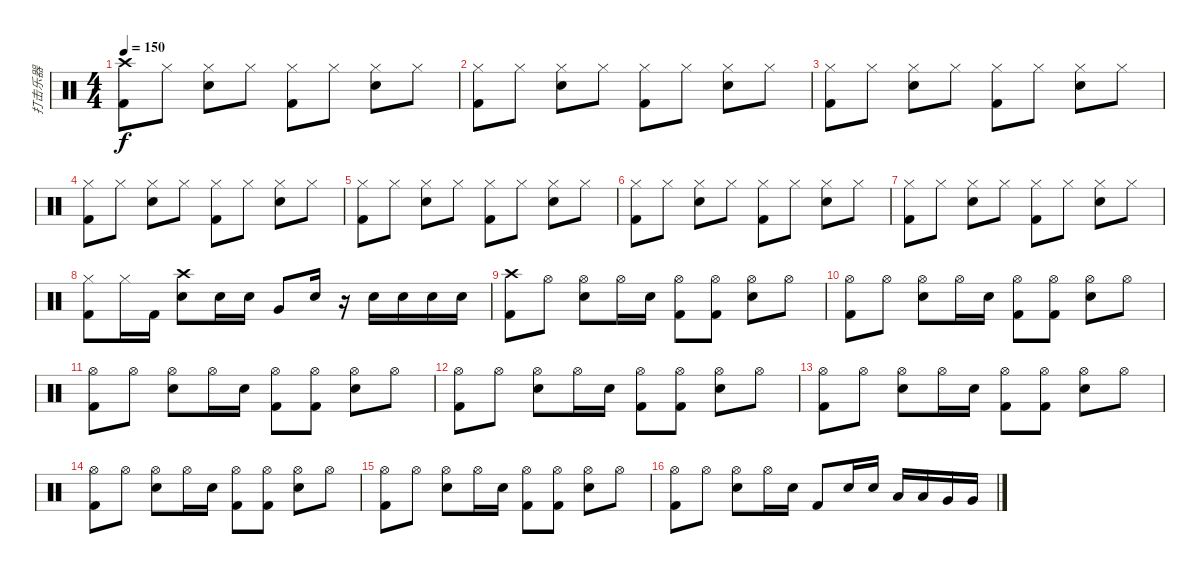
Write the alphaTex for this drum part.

\track ("打击乐器" "打击乐器") {instrument percussion}
\staff {score}
\articulation defaults
\ts (4 4)
\tempo 150
\clef neutral
\ks c
("Kick (hit) 2" "Crash high (hit)").8{dy f} "Hi-Hat (closed)".8 ("Hi-Hat (closed)" "Snare (hit) 2").8 "Hi-Hat (closed)".8 ("Hi-Hat (closed)" "Kick (hit) 2").8 "Hi-Hat (closed)".8 ("Hi-Hat (closed)" "Snare (hit) 2").8 "Hi-Hat (closed)".8 |
("Kick (hit) 2" "Hi-Hat (closed)").8 "Hi-Hat (closed)".8 ("Hi-Hat (closed)" "Snare (hit) 2").8 "Hi-Hat (closed)".8 ("Hi-Hat (closed)" "Kick (hit) 2").8 "Hi-Hat (closed)".8 ("Hi-Hat (closed)" "Snare (hit) 2").8 "Hi-Hat (closed)".8 |
("Kick (hit) 2" "Hi-Hat (closed)").8 "Hi-Hat (closed)".8 ("Hi-Hat (closed)" "Snare (hit) 2").8 "Hi-Hat (closed)".8 ("Hi-Hat (closed)" "Kick (hit) 2").8 "Hi-Hat (closed)".8 ("Hi-Hat (closed)" "Snare (hit) 2").8 "Hi-Hat (closed)".8 |
("Kick (hit) 2" "Hi-Hat (closed)").8 "Hi-Hat (closed)".8 ("Hi-Hat (closed)" "Snare (hit) 2").8 "Hi-Hat (closed)".8 ("Hi-Hat (closed)" "Kick (hit) 2").8 "Hi-Hat (closed)".8 ("Hi-Hat (closed)" "Snare (hit) 2").8 "Hi-Hat (closed)".8 |
("Kick (hit) 2" "Hi-Hat (closed)").8 "Hi-Hat (closed)".8 ("Hi-Hat (closed)" "Snare (hit) 2").8 "Hi-Hat (closed)".8 ("Hi-Hat (closed)" "Kick (hit) 2").8 "Hi-Hat (closed)".8 ("Hi-Hat (closed)" "Snare (hit) 2").8 "Hi-Hat (closed)".8 |
("Kick (hit) 2" "Hi-Hat (closed)").8 "Hi-Hat (closed)".8 ("Hi-Hat (closed)" "Snare (hit) 2").8 "Hi-Hat (closed)".8 ("Hi-Hat (closed)" "Kick (hit) 2").8 "Hi-Hat (closed)".8 ("Hi-Hat (closed)" "Snare (hit) 2").8 "Hi-Hat (closed)".8 |
("Kick (hit) 2" "Hi-Hat (closed)").8 "Hi-Hat (closed)".8 ("Hi-Hat (closed)" "Snare (hit) 2").8 "Hi-Hat (closed)".8 ("Hi-Hat (closed)" "Kick (hit) 2").8 "Hi-Hat (closed)".8 ("Hi-Hat (closed)" "Snare (hit) 2").8 "Hi-Hat (closed)".8 |
("Kick (hit) 2" "Hi-Hat (closed)").8 "Hi-Hat (closed)".16 "Kick (hit) 2".16 ("Snare (hit) 2" "Crash high (hit)").8 "Snare (hit) 2".16 "Snare (hit) 2".16 "Very Low Tom (hit)".8 "Snare (hit) 2".16 r.16 "Snare (hit) 2".16 "Snare (hit) 2".16 "Snare (hit) 2".16 "Snare (hit) 2".16 |
("Crash high (hit)" "Kick (hit) 2").8 "Hi-Hat (open)".8 ("Hi-Hat (open)" "Snare (hit) 2").8 "Hi-Hat (open)".16 "Snare (hit) 2".16 ("Hi-Hat (open)" "Kick (hit) 2").8 ("Hi-Hat (open)" "Kick (hit) 2").8 ("Hi-Hat (open)" "Snare (hit) 2").8 "Hi-Hat (open)".8 |
("Hi-Hat (open)" "Kick (hit) 2").8 "Hi-Hat (open)".8 ("Hi-Hat (open)" "Snare (hit) 2").8 "Hi-Hat (open)".16 "Snare (hit) 2".16 ("Hi-Hat (open)" "Kick (hit) 2").8 ("Hi-Hat (open)" "Kick (hit) 2").8 ("Hi-Hat (open)" "Snare (hit) 2").8 "Hi-Hat (open)".8 |
("Hi-Hat (open)" "Kick (hit) 2").8 "Hi-Hat (open)".8 ("Hi-Hat (open)" "Snare (hit) 2").8 "Hi-Hat (open)".16 "Snare (hit) 2".16 ("Hi-Hat (open)" "Kick (hit) 2").8 ("Hi-Hat (open)" "Kick (hit) 2").8 ("Hi-Hat (open)" "Snare (hit) 2").8 "Hi-Hat (open)".8 |
("Hi-Hat (open)" "Kick (hit) 2").8 "Hi-Hat (open)".8 ("Hi-Hat (open)" "Snare (hit) 2").8 "Hi-Hat (open)".16 "Snare (hit) 2".16 ("Hi-Hat (open)" "Kick (hit) 2").8 ("Hi-Hat (open)" "Kick (hit) 2").8 ("Hi-Hat (open)" "Snare (hit) 2").8 "Hi-Hat (open)".8 |
("Hi-Hat (open)" "Kick (hit) 2").8 "Hi-Hat (open)".8 ("Hi-Hat (open)" "Snare (hit) 2").8 "Hi-Hat (open)".16 "Snare (hit) 2".16 ("Hi-Hat (open)" "Kick (hit) 2").8 ("Hi-Hat (open)" "Kick (hit) 2").8 ("Hi-Hat (open)" "Snare (hit) 2").8 "Hi-Hat (open)".8 |
("Hi-Hat (open)" "Kick (hit) 2").8 "Hi-Hat (open)".8 ("Hi-Hat (open)" "Snare (hit) 2").8 "Hi-Hat (open)".16 "Snare (hit) 2".16 ("Hi-Hat (open)" "Kick (hit) 2").8 ("Hi-Hat (open)" "Kick (hit) 2").8 ("Hi-Hat (open)" "Snare (hit) 2").8 "Hi-Hat (open)".8 |
("Hi-Hat (open)" "Kick (hit) 2").8 "Hi-Hat (open)".8 ("Hi-Hat (open)" "Snare (hit) 2").8 "Hi-Hat (open)".16 "Snare (hit) 2".16 ("Hi-Hat (open)" "Kick (hit) 2").8 ("Hi-Hat (open)" "Kick (hit) 2").8 ("Hi-Hat (open)" "Snare (hit) 2").8 "Hi-Hat (open)".8 |
("Hi-Hat (open)" "Kick (hit) 2").8 "Hi-Hat (open)".8 ("Hi-Hat (open)" "Snare (hit) 2").8 "Hi-Hat (open)".16 "Snare (hit) 2".16 "Kick (hit) 2".8 "Snare (hit) 2".16 "Snare (hit) 2".16 "Low Tom (hit)".16 "Low Tom (hit)".16 "Very Low Tom (hit)".16 "Very Low Tom (hit)".16
